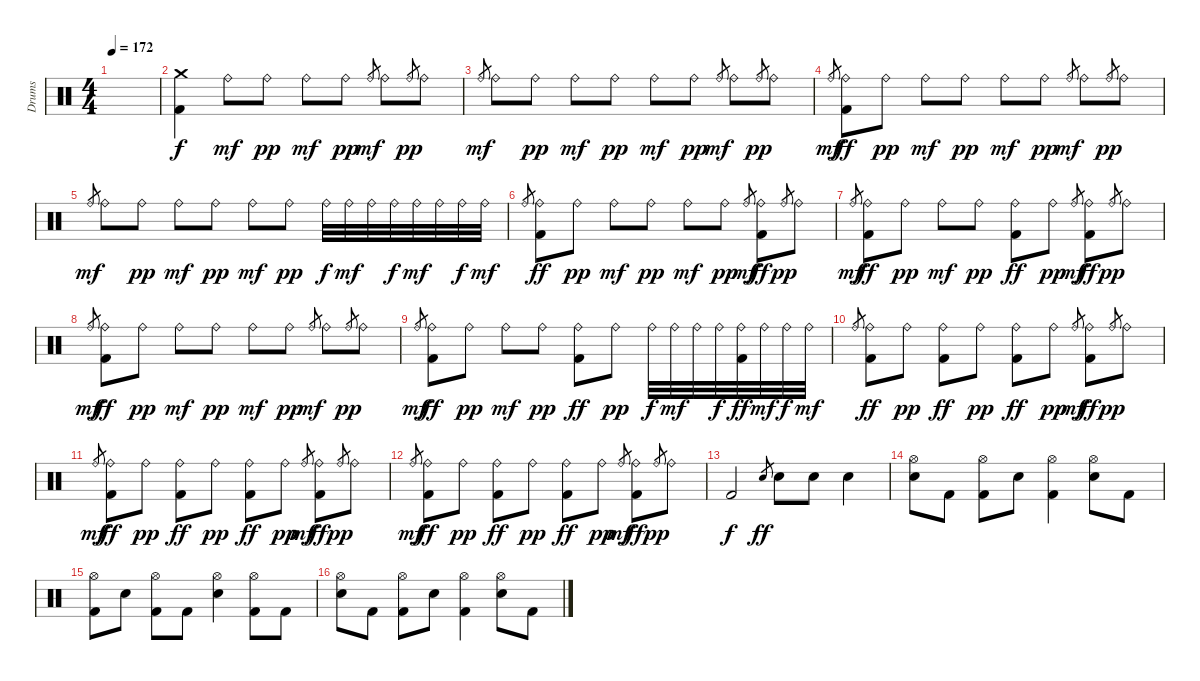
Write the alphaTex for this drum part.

\track ("Drums" "Drums") {instrument percussion}
\staff {score}
\articulation defaults
\ts (4 4)
\tempo 172
\clef neutral
\ks c
|
("Crash medium (hit)" "Kick (hit) 2").4 "Ride (bell)".8{dy mf} "Ride (bell)".8{dy pp} "Ride (bell)".8{dy mf} "Ride (bell)".8{dy pp} "Ride (bell)".8{gr dy mf} "Ride (bell)".8 "Ride (bell)".8{gr dy pp} "Ride (bell)".8 |
"Ride (bell)".8{gr dy mf} "Ride (bell)".8 "Ride (bell)".8{dy pp} "Ride (bell)".8{dy mf} "Ride (bell)".8{dy pp} "Ride (bell)".8{dy mf} "Ride (bell)".8{dy pp} "Ride (bell)".8{gr dy mf} "Ride (bell)".8 "Ride (bell)".8{gr dy pp} "Ride (bell)".8 |
"Ride (bell)".8{gr dy mf} ("Ride (bell)" "Kick (hit) 2").8{dy ff} "Ride (bell)".8{dy pp} "Ride (bell)".8{dy mf} "Ride (bell)".8{dy pp} "Ride (bell)".8{dy mf} "Ride (bell)".8{dy pp} "Ride (bell)".8{gr dy mf} "Ride (bell)".8 "Ride (bell)".8{gr dy pp} "Ride (bell)".8 |
"Ride (bell)".8{gr dy mf} "Ride (bell)".8 "Ride (bell)".8{dy pp} "Ride (bell)".8{dy mf} "Ride (bell)".8{dy pp} "Ride (bell)".8{dy mf} "Ride (bell)".8{dy pp} "Ride (bell)".32{dy f} "Ride (bell)".32{dy mf} "Ride (bell)".32 "Ride (bell)".32{dy f} "Ride (bell)".32{dy mf} "Ride (bell)".32 "Ride (bell)".32{dy f} "Ride (bell)".32{dy mf} |
"Ride (bell)".8{gr} ("Ride (bell)" "Kick (hit) 2").8{dy ff} "Ride (bell)".8{dy pp} "Ride (bell)".8{dy mf} "Ride (bell)".8{dy pp} "Ride (bell)".8{dy mf} "Ride (bell)".8{dy pp} "Ride (bell)".8{gr dy mf} ("Ride (bell)" "Kick (hit) 2").8{dy ff} "Ride (bell)".8{gr dy pp} "Ride (bell)".8 |
"Ride (bell)".8{gr dy mf} ("Ride (bell)" "Kick (hit) 2").8{dy ff} "Ride (bell)".8{dy pp} "Ride (bell)".8{dy mf} "Ride (bell)".8{dy pp} ("Ride (bell)" "Kick (hit) 2").8{dy ff} "Ride (bell)".8{dy pp} "Ride (bell)".8{gr dy mf} ("Ride (bell)" "Kick (hit) 2").8{dy ff} "Ride (bell)".8{gr dy pp} "Ride (bell)".8 |
"Ride (bell)".8{gr dy mf} ("Ride (bell)" "Kick (hit) 2").8{dy ff} "Ride (bell)".8{dy pp} "Ride (bell)".8{dy mf} "Ride (bell)".8{dy pp} "Ride (bell)".8{dy mf} "Ride (bell)".8{dy pp} "Ride (bell)".8{gr dy mf} "Ride (bell)".8 "Ride (bell)".8{gr dy pp} "Ride (bell)".8 |
"Ride (bell)".8{gr dy mf} ("Ride (bell)" "Kick (hit) 2").8{dy ff} "Ride (bell)".8{dy pp} "Ride (bell)".8{dy mf} "Ride (bell)".8{dy pp} ("Ride (bell)" "Kick (hit) 2").8{dy ff} "Ride (bell)".8{dy pp} "Ride (bell)".32{dy f} "Ride (bell)".32{dy mf} "Ride (bell)".32 "Ride (bell)".32{dy f} ("Ride (bell)" "Kick (hit) 2").32{dy ff} "Ride (bell)".32{dy mf} "Ride (bell)".32{dy f} "Ride (bell)".32{dy mf} |
"Ride (bell)".8{gr} ("Ride (bell)" "Kick (hit) 2").8{dy ff} "Ride (bell)".8{dy pp} ("Ride (bell)" "Kick (hit) 2").8{dy ff} "Ride (bell)".8{dy pp} ("Ride (bell)" "Kick (hit) 2").8{dy ff} "Ride (bell)".8{dy pp} "Ride (bell)".8{gr dy mf} ("Ride (bell)" "Kick (hit) 2").8{dy ff} "Ride (bell)".8{gr dy pp} "Ride (bell)".8 |
"Ride (bell)".8{gr dy mf} ("Ride (bell)" "Kick (hit) 2").8{dy ff} "Ride (bell)".8{dy pp} ("Ride (bell)" "Kick (hit) 2").8{dy ff} "Ride (bell)".8{dy pp} ("Ride (bell)" "Kick (hit) 2").8{dy ff} "Ride (bell)".8{dy pp} "Ride (bell)".8{gr dy mf} ("Ride (bell)" "Kick (hit) 2").8{dy ff} "Ride (bell)".8{gr dy pp} "Ride (bell)".8 |
"Ride (bell)".8{gr dy mf} ("Ride (bell)" "Kick (hit) 2").8{dy ff} "Ride (bell)".8{dy pp} ("Ride (bell)" "Kick (hit) 2").8{dy ff} "Ride (bell)".8{dy pp} ("Ride (bell)" "Kick (hit) 2").8{dy ff} "Ride (bell)".8{dy pp} "Ride (bell)".8{gr dy mf} ("Ride (bell)" "Kick (hit) 2").8{dy ff} "Ride (bell)".8{gr dy pp} "Ride (bell)".8 |
"Kick (hit) 2".2{dy f} "Snare (hit) 2".8{gr dy ff} "Snare (hit) 2".8 "Snare (hit) 2".8 "Snare (hit) 2".4 |
("Hi-Hat (open)" "Snare (hit) 2").8 "Kick (hit) 2".8 ("Hi-Hat (open)" "Kick (hit) 2").8 "Snare (hit) 2".8 ("Hi-Hat (open)" "Kick (hit) 2").4 ("Hi-Hat (open)" "Snare (hit) 2").8 "Kick (hit) 2".8 |
("Hi-Hat (open)" "Kick (hit) 2").8 "Snare (hit) 2".8 ("Hi-Hat (open)" "Kick (hit) 2").8 "Kick (hit) 2".8 ("Hi-Hat (open)" "Snare (hit) 2").4 ("Hi-Hat (open)" "Kick (hit) 2").8 "Kick (hit) 2".8 |
("Hi-Hat (open)" "Snare (hit) 2").8 "Kick (hit) 2".8 ("Hi-Hat (open)" "Kick (hit) 2").8 "Snare (hit) 2".8 ("Hi-Hat (open)" "Kick (hit) 2").4 ("Hi-Hat (open)" "Snare (hit) 2").8 "Kick (hit) 2".8
